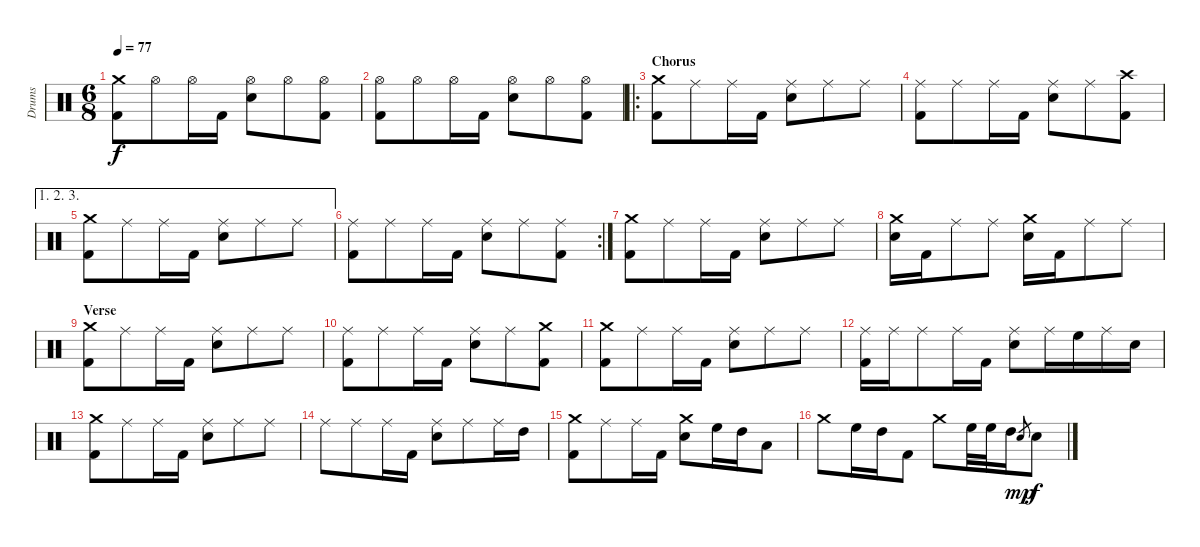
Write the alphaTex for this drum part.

\track ("Drums" "Drums") {instrument percussion}
\staff {score}
\articulation defaults
\ts (6 8)
\tempo 77
\clef neutral
\ks c
("Crash medium (hit)" "Kick (hit) 2").8{dy f} "Hi-Hat (open)".8 "Hi-Hat (open)".16 "Kick (hit) 2".16 ("Hi-Hat (open)" "Snare (hit) 2").8 "Hi-Hat (open)".8 ("Hi-Hat (open)" "Kick (hit) 2").8 |
("Hi-Hat (open)" "Kick (hit) 2").8 "Hi-Hat (open)".8 "Hi-Hat (open)".16 "Kick (hit) 2".16 ("Hi-Hat (open)" "Snare (hit) 2").8 "Hi-Hat (open)".8 ("Hi-Hat (open)" "Kick (hit) 2").8 |
\ro
\section ("" "Chorus")
("Crash medium (hit)" "Kick (hit) 2").8 "Ride (middle)".8 "Ride (middle)".16 "Kick (hit) 2".16 ("Ride (middle)" "Snare (hit) 2").8 "Ride (middle)".8 "Ride (middle)".8 |
("Ride (middle)" "Kick (hit) 2").8 "Ride (middle)".8 "Ride (middle)".16 "Kick (hit) 2".16 ("Ride (middle)" "Snare (hit) 2").8 "Ride (middle)".8 ("Crash high (hit)" "Kick (hit) 2").8 |
\ae (1 2 3)
("Crash medium (hit)" "Kick (hit) 2").8 "Ride (middle)".8 "Ride (middle)".16 "Kick (hit) 2".16 ("Ride (middle)" "Snare (hit) 2").8 "Ride (middle)".8 "Ride (middle)".8 |
\rc 2
("Ride (middle)" "Kick (hit) 2").8 "Ride (middle)".8 "Ride (middle)".16 "Kick (hit) 2".16 ("Ride (middle)" "Snare (hit) 2").8 "Ride (middle)".8 ("Ride (middle)" "Kick (hit) 2").8 |
("Crash medium (hit)" "Kick (hit) 2").8 "Ride (middle)".8 "Ride (middle)".16 "Kick (hit) 2".16 ("Ride (middle)" "Snare (hit) 2").8 "Ride (middle)".8 "Ride (middle)".8 |
("Crash medium (hit)" "Snare (hit) 2").16 "Kick (hit) 2".16 "Ride (middle)".8 "Ride (middle)".8 ("Crash medium (hit)" "Snare (hit) 2").16 "Kick (hit) 2".16 "Ride (middle)".8 "Ride (middle)".8 |
\section ("" "Verse")
("Crash medium (hit)" "Kick (hit) 2").8 "Ride (middle)".8 "Ride (middle)".16 "Kick (hit) 2".16 ("Ride (middle)" "Snare (hit) 2").8 "Ride (middle)".8 "Ride (middle)".8 |
("Ride (middle)" "Kick (hit) 2").8 "Ride (middle)".8 "Ride (middle)".16 "Kick (hit) 2".16 ("Ride (middle)" "Snare (hit) 2").8 "Ride (middle)".8 ("Crash medium (hit)" "Kick (hit) 2").8 |
("Crash medium (hit)" "Kick (hit) 2").8 "Ride (middle)".8 "Ride (middle)".16 "Kick (hit) 2".16 ("Ride (middle)" "Snare (hit) 2").8 "Ride (middle)".8 "Ride (middle)".8 |
("Ride (middle)" "Kick (hit) 2").16 "Ride (middle)".16 "Ride (middle)".8 "Ride (middle)".16 "Kick (hit) 2".16 ("Ride (middle)" "Snare (hit) 2").8 "Ride (middle)".16 "High Floor Tom (hit)".16 "Ride (middle)".16 "Snare (hit) 2".16 |
("Crash medium (hit)" "Kick (hit) 2").8 "Ride (middle)".8 "Ride (middle)".16 "Kick (hit) 2".16 ("Ride (middle)" "Snare (hit) 2").8 "Ride (middle)".8 "Ride (middle)".8 |
"Ride (middle)".8 "Ride (middle)".8 "Ride (middle)".16 "Kick (hit) 2".16 ("Ride (middle)" "Snare (hit) 2").8 "Ride (middle)".8 "Ride (middle)".16 "High Tom (hit)".16 |
("Crash medium (hit)" "Kick (hit) 2").8 "Ride (middle)".8 "Ride (middle)".16 "Kick (hit) 2".16 ("Crash medium (hit)" "Snare (hit) 2").8 "High Floor Tom (hit)".16 "High Tom (hit)".16 "Low Floor Tom (hit)".8 |
"Crash medium (hit)".8 "High Floor Tom (hit)".16 "High Tom (hit)".16 "Kick (hit) 2".8 "Crash medium (hit)".8 "High Floor Tom (hit)".32 "High Floor Tom (hit)".32 "High Tom (hit)".16 "Snare (hit) 2"{sl}.8{gr dy mp} "Snare (hit) 2".8{dy f}
